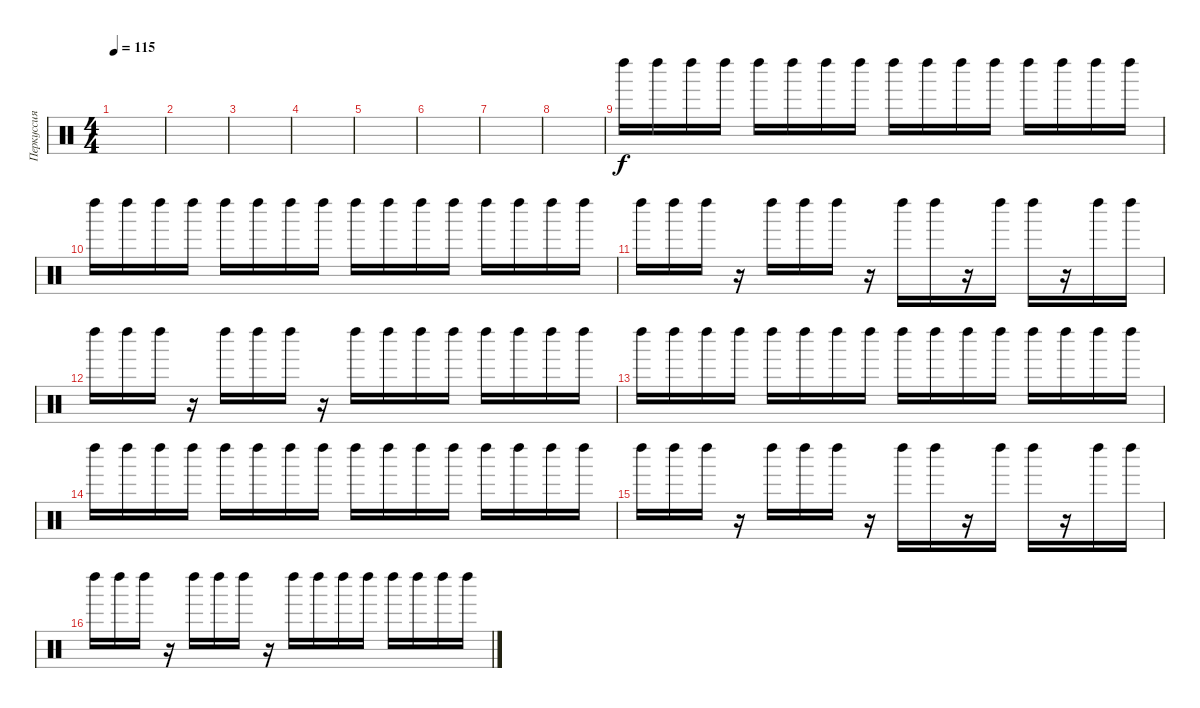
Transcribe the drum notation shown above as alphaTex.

\track ("Перкуссия" "Перкуссия") {instrument percussion}
\staff {score}
\articulation defaults
\ts (4 4)
\tempo 115
\clef neutral
\ks c
|
|
|
|
|
|
|
|
"Left Maraca (hit)".16 "Left Maraca (hit)".16 "Left Maraca (hit)".16 "Left Maraca (hit)".16 "Left Maraca (hit)".16 "Left Maraca (hit)".16 "Left Maraca (hit)".16 "Left Maraca (hit)".16 "Left Maraca (hit)".16 "Left Maraca (hit)".16 "Left Maraca (hit)".16 "Left Maraca (hit)".16 "Left Maraca (hit)".16 "Left Maraca (hit)".16 "Left Maraca (hit)".16 "Left Maraca (hit)".16 |
"Left Maraca (hit)".16 "Left Maraca (hit)".16 "Left Maraca (hit)".16 "Left Maraca (hit)".16 "Left Maraca (hit)".16 "Left Maraca (hit)".16 "Left Maraca (hit)".16 "Left Maraca (hit)".16 "Left Maraca (hit)".16 "Left Maraca (hit)".16 "Left Maraca (hit)".16 "Left Maraca (hit)".16 "Left Maraca (hit)".16 "Left Maraca (hit)".16 "Left Maraca (hit)".16 "Left Maraca (hit)".16 |
"Left Maraca (hit)".16 "Left Maraca (hit)".16 "Left Maraca (hit)".16 r.16 "Left Maraca (hit)".16 "Left Maraca (hit)".16 "Left Maraca (hit)".16 r.16 "Left Maraca (hit)".16 "Left Maraca (hit)".16 r.16 "Left Maraca (hit)".16 "Left Maraca (hit)".16 r.16 "Left Maraca (hit)".16 "Left Maraca (hit)".16 |
"Left Maraca (hit)".16 "Left Maraca (hit)".16 "Left Maraca (hit)".16 r.16 "Left Maraca (hit)".16 "Left Maraca (hit)".16 "Left Maraca (hit)".16 r.16 "Left Maraca (hit)".16 "Left Maraca (hit)".16 "Left Maraca (hit)".16 "Left Maraca (hit)".16 "Left Maraca (hit)".16 "Left Maraca (hit)".16 "Left Maraca (hit)".16 "Left Maraca (hit)".16 |
"Left Maraca (hit)".16 "Left Maraca (hit)".16 "Left Maraca (hit)".16 "Left Maraca (hit)".16 "Left Maraca (hit)".16 "Left Maraca (hit)".16 "Left Maraca (hit)".16 "Left Maraca (hit)".16 "Left Maraca (hit)".16 "Left Maraca (hit)".16 "Left Maraca (hit)".16 "Left Maraca (hit)".16 "Left Maraca (hit)".16 "Left Maraca (hit)".16 "Left Maraca (hit)".16 "Left Maraca (hit)".16 |
"Left Maraca (hit)".16 "Left Maraca (hit)".16 "Left Maraca (hit)".16 "Left Maraca (hit)".16 "Left Maraca (hit)".16 "Left Maraca (hit)".16 "Left Maraca (hit)".16 "Left Maraca (hit)".16 "Left Maraca (hit)".16 "Left Maraca (hit)".16 "Left Maraca (hit)".16 "Left Maraca (hit)".16 "Left Maraca (hit)".16 "Left Maraca (hit)".16 "Left Maraca (hit)".16 "Left Maraca (hit)".16 |
"Left Maraca (hit)".16 "Left Maraca (hit)".16 "Left Maraca (hit)".16 r.16 "Left Maraca (hit)".16 "Left Maraca (hit)".16 "Left Maraca (hit)".16 r.16 "Left Maraca (hit)".16 "Left Maraca (hit)".16 r.16 "Left Maraca (hit)".16 "Left Maraca (hit)".16 r.16 "Left Maraca (hit)".16 "Left Maraca (hit)".16 |
"Left Maraca (hit)".16 "Left Maraca (hit)".16 "Left Maraca (hit)".16 r.16 "Left Maraca (hit)".16 "Left Maraca (hit)".16 "Left Maraca (hit)".16 r.16 "Left Maraca (hit)".16 "Left Maraca (hit)".16 "Left Maraca (hit)".16 "Left Maraca (hit)".16 "Left Maraca (hit)".16 "Left Maraca (hit)".16 "Left Maraca (hit)".16 "Left Maraca (hit)".16
